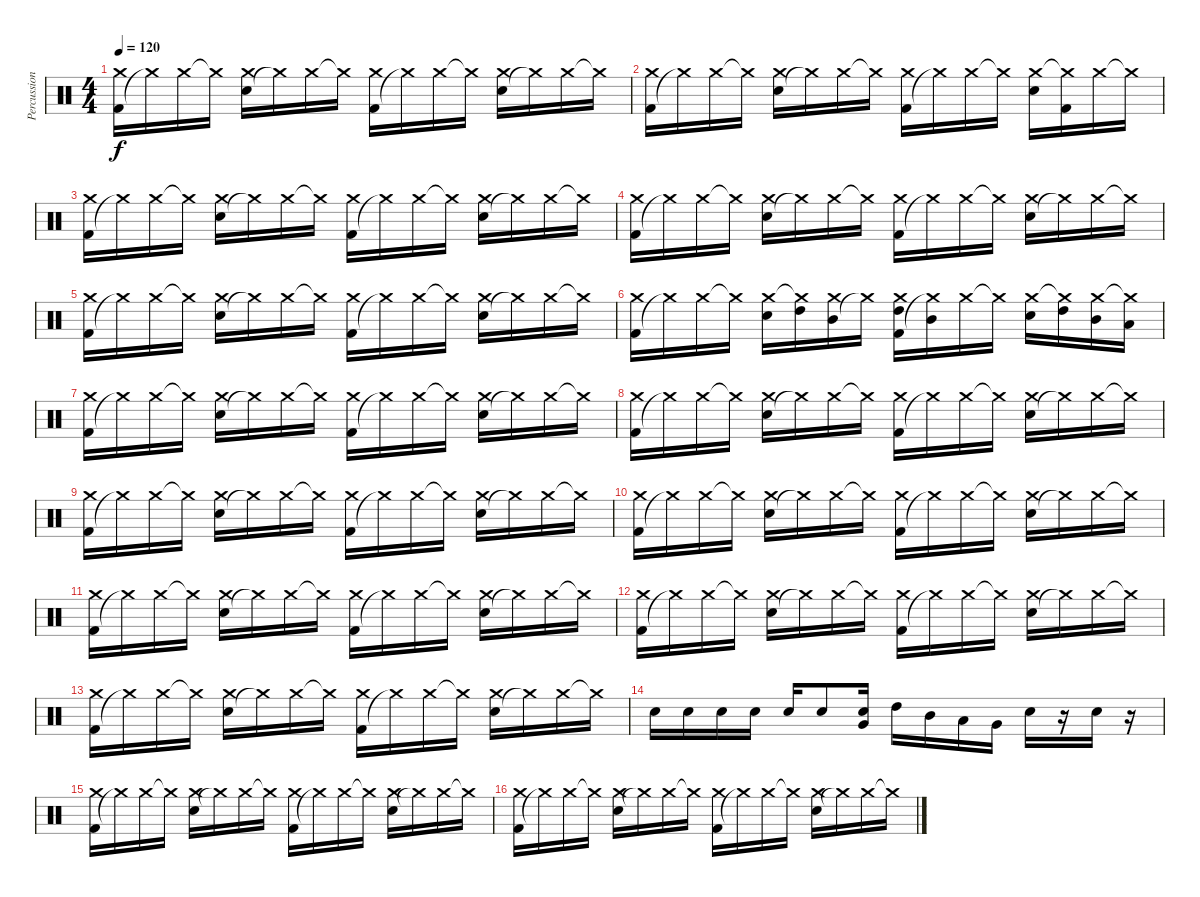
\track ("Percussions" "Percussion") {instrument percussion}
\staff {score}
\articulation defaults
\ts (4 4)
\tempo 120
\clef neutral
\ks c
("Kick (hit) 2" "Crash medium (hit)").16{dy f} "Crash medium (hit)"{t}.16 "Crash medium (hit)".16 "Crash medium (hit)"{t}.16 ("Electric Snare (hit)" "Crash medium (hit)").16 "Crash medium (hit)"{t}.16 "Crash medium (hit)".16 "Crash medium (hit)"{t}.16 ("Kick (hit) 2" "Crash medium (hit)").16 "Crash medium (hit)"{t}.16 "Crash medium (hit)".16 "Crash medium (hit)"{t}.16 ("Electric Snare (hit)" "Crash medium (hit)").16 "Crash medium (hit)"{t}.16 "Crash medium (hit)".16 "Crash medium (hit)"{t}.16 |
("Kick (hit) 2" "Crash medium (hit)").16 "Crash medium (hit)"{t}.16 "Crash medium (hit)".16 "Crash medium (hit)"{t}.16 ("Electric Snare (hit)" "Crash medium (hit)").16 "Crash medium (hit)"{t}.16 "Crash medium (hit)".16 "Crash medium (hit)"{t}.16 ("Kick (hit) 2" "Crash medium (hit)").16 "Crash medium (hit)"{t}.16 "Crash medium (hit)".16 "Crash medium (hit)"{t}.16 ("Electric Snare (hit)" "Crash medium (hit)").16 ("Kick (hit) 2" "Crash medium (hit)"{t}).16 "Crash medium (hit)".16 "Crash medium (hit)"{t}.16 |
("Kick (hit) 2" "Crash medium (hit)").16 "Crash medium (hit)"{t}.16 "Crash medium (hit)".16 "Crash medium (hit)"{t}.16 ("Electric Snare (hit)" "Crash medium (hit)").16 "Crash medium (hit)"{t}.16 "Crash medium (hit)".16 "Crash medium (hit)"{t}.16 ("Kick (hit) 2" "Crash medium (hit)").16 "Crash medium (hit)"{t}.16 "Crash medium (hit)".16 "Crash medium (hit)"{t}.16 ("Electric Snare (hit)" "Crash medium (hit)").16 "Crash medium (hit)"{t}.16 "Crash medium (hit)".16 "Crash medium (hit)"{t}.16 |
("Kick (hit) 2" "Crash medium (hit)").16 "Crash medium (hit)"{t}.16 "Crash medium (hit)".16 "Crash medium (hit)"{t}.16 ("Electric Snare (hit)" "Crash medium (hit)").16 "Crash medium (hit)"{t}.16 "Crash medium (hit)".16 "Crash medium (hit)"{t}.16 ("Kick (hit) 2" "Crash medium (hit)").16 "Crash medium (hit)"{t}.16 "Crash medium (hit)".16 "Crash medium (hit)"{t}.16 ("Electric Snare (hit)" "Crash medium (hit)").16 "Crash medium (hit)"{t}.16 "Crash medium (hit)".16 "Crash medium (hit)"{t}.16 |
("Kick (hit) 2" "Crash medium (hit)").16 "Crash medium (hit)"{t}.16 "Crash medium (hit)".16 "Crash medium (hit)"{t}.16 ("Electric Snare (hit)" "Crash medium (hit)").16 "Crash medium (hit)"{t}.16 "Crash medium (hit)".16 "Crash medium (hit)"{t}.16 ("Kick (hit) 2" "Crash medium (hit)").16 "Crash medium (hit)"{t}.16 "Crash medium (hit)".16 "Crash medium (hit)"{t}.16 ("Electric Snare (hit)" "Crash medium (hit)").16 "Crash medium (hit)"{t}.16 "Crash medium (hit)".16 "Crash medium (hit)"{t}.16 |
("Kick (hit) 2" "Crash medium (hit)").16 "Crash medium (hit)"{t}.16 "Crash medium (hit)".16 "Crash medium (hit)"{t}.16 ("Electric Snare (hit)" "Crash medium (hit)").16 ("High Tom (hit)" "Crash medium (hit)"{t}).16 ("Mid Tom (hit)" "Crash medium (hit)").16 "Crash medium (hit)"{t}.16 ("High Tom (hit)" "Kick (hit) 2" "Crash medium (hit)").16 ("Mid Tom (hit)" "Crash medium (hit)"{t}).16 "Crash medium (hit)".16 "Crash medium (hit)"{t}.16 ("Electric Snare (hit)" "Crash medium (hit)").16 ("High Tom (hit)" "Crash medium (hit)"{t}).16 ("Mid Tom (hit)" "Crash medium (hit)").16 ("Low Tom (hit)" "Crash medium (hit)"{t}).16 |
("Kick (hit) 2" "Crash medium (hit)").16 "Crash medium (hit)"{t}.16 "Crash medium (hit)".16 "Crash medium (hit)"{t}.16 ("Electric Snare (hit)" "Crash medium (hit)").16 "Crash medium (hit)"{t}.16 "Crash medium (hit)".16 "Crash medium (hit)"{t}.16 ("Kick (hit) 2" "Crash medium (hit)").16 "Crash medium (hit)"{t}.16 "Crash medium (hit)".16 "Crash medium (hit)"{t}.16 ("Electric Snare (hit)" "Crash medium (hit)").16 "Crash medium (hit)"{t}.16 "Crash medium (hit)".16 "Crash medium (hit)"{t}.16 |
("Kick (hit) 2" "Crash medium (hit)").16 "Crash medium (hit)"{t}.16 "Crash medium (hit)".16 "Crash medium (hit)"{t}.16 ("Electric Snare (hit)" "Crash medium (hit)").16 "Crash medium (hit)"{t}.16 "Crash medium (hit)".16 "Crash medium (hit)"{t}.16 ("Kick (hit) 2" "Crash medium (hit)").16 "Crash medium (hit)"{t}.16 "Crash medium (hit)".16 "Crash medium (hit)"{t}.16 ("Electric Snare (hit)" "Crash medium (hit)").16 "Crash medium (hit)"{t}.16 "Crash medium (hit)".16 "Crash medium (hit)"{t}.16 |
("Kick (hit) 2" "Crash medium (hit)").16 "Crash medium (hit)"{t}.16 "Crash medium (hit)".16 "Crash medium (hit)"{t}.16 ("Electric Snare (hit)" "Crash medium (hit)").16 "Crash medium (hit)"{t}.16 "Crash medium (hit)".16 "Crash medium (hit)"{t}.16 ("Kick (hit) 2" "Crash medium (hit)").16 "Crash medium (hit)"{t}.16 "Crash medium (hit)".16 "Crash medium (hit)"{t}.16 ("Electric Snare (hit)" "Crash medium (hit)").16 "Crash medium (hit)"{t}.16 "Crash medium (hit)".16 "Crash medium (hit)"{t}.16 |
("Kick (hit) 2" "Crash medium (hit)").16 "Crash medium (hit)"{t}.16 "Crash medium (hit)".16 "Crash medium (hit)"{t}.16 ("Electric Snare (hit)" "Crash medium (hit)").16 "Crash medium (hit)"{t}.16 "Crash medium (hit)".16 "Crash medium (hit)"{t}.16 ("Kick (hit) 2" "Crash medium (hit)").16 "Crash medium (hit)"{t}.16 "Crash medium (hit)".16 "Crash medium (hit)"{t}.16 ("Electric Snare (hit)" "Crash medium (hit)").16 "Crash medium (hit)"{t}.16 "Crash medium (hit)".16 "Crash medium (hit)"{t}.16 |
("Kick (hit) 2" "Crash medium (hit)").16 "Crash medium (hit)"{t}.16 "Crash medium (hit)".16 "Crash medium (hit)"{t}.16 ("Electric Snare (hit)" "Crash medium (hit)").16 "Crash medium (hit)"{t}.16 "Crash medium (hit)".16 "Crash medium (hit)"{t}.16 ("Kick (hit) 2" "Crash medium (hit)").16 "Crash medium (hit)"{t}.16 "Crash medium (hit)".16 "Crash medium (hit)"{t}.16 ("Electric Snare (hit)" "Crash medium (hit)").16 "Crash medium (hit)"{t}.16 "Crash medium (hit)".16 "Crash medium (hit)"{t}.16 |
("Kick (hit) 2" "Crash medium (hit)").16 "Crash medium (hit)"{t}.16 "Crash medium (hit)".16 "Crash medium (hit)"{t}.16 ("Electric Snare (hit)" "Crash medium (hit)").16 "Crash medium (hit)"{t}.16 "Crash medium (hit)".16 "Crash medium (hit)"{t}.16 ("Kick (hit) 2" "Crash medium (hit)").16 "Crash medium (hit)"{t}.16 "Crash medium (hit)".16 "Crash medium (hit)"{t}.16 ("Electric Snare (hit)" "Crash medium (hit)").16 "Crash medium (hit)"{t}.16 "Crash medium (hit)".16 "Crash medium (hit)"{t}.16 |
("Kick (hit) 2" "Crash medium (hit)").16 "Crash medium (hit)"{t}.16 "Crash medium (hit)".16 "Crash medium (hit)"{t}.16 ("Electric Snare (hit)" "Crash medium (hit)").16 "Crash medium (hit)"{t}.16 "Crash medium (hit)".16 "Crash medium (hit)"{t}.16 ("Kick (hit) 2" "Crash medium (hit)").16 "Crash medium (hit)"{t}.16 "Crash medium (hit)".16 "Crash medium (hit)"{t}.16 ("Electric Snare (hit)" "Crash medium (hit)").16 "Crash medium (hit)"{t}.16 "Crash medium (hit)".16 "Crash medium (hit)"{t}.16 |
"Electric Snare (hit)".16 "Electric Snare (hit)".16 "Electric Snare (hit)".16 "Electric Snare (hit)".16 "Electric Snare (hit)".16 "Electric Snare (hit)".8 ("Very Low Tom (hit)" "Electric Snare (hit)").16 "High Tom (hit)".16 "Mid Tom (hit)".16 "Low Tom (hit)".16 "Very Low Tom (hit)".16 "Electric Snare (hit)".16 r.16 "Electric Snare (hit)".16 r.16 |
("Kick (hit) 2" "Crash medium (hit)").16 "Crash medium (hit)"{t}.16 "Crash medium (hit)".16 "Crash medium (hit)"{t}.16 ("Electric Snare (hit)" "Crash medium (hit)").16 "Crash medium (hit)"{t}.16 "Crash medium (hit)".16 "Crash medium (hit)"{t}.16 ("Kick (hit) 2" "Crash medium (hit)").16 "Crash medium (hit)"{t}.16 "Crash medium (hit)".16 "Crash medium (hit)"{t}.16 ("Electric Snare (hit)" "Crash medium (hit)").16 "Crash medium (hit)"{t}.16 "Crash medium (hit)".16 "Crash medium (hit)"{t}.16 |
("Kick (hit) 2" "Crash medium (hit)").16 "Crash medium (hit)"{t}.16 "Crash medium (hit)".16 "Crash medium (hit)"{t}.16 ("Electric Snare (hit)" "Crash medium (hit)").16 "Crash medium (hit)"{t}.16 "Crash medium (hit)".16 "Crash medium (hit)"{t}.16 ("Kick (hit) 2" "Crash medium (hit)").16 "Crash medium (hit)"{t}.16 "Crash medium (hit)".16 "Crash medium (hit)"{t}.16 ("Electric Snare (hit)" "Crash medium (hit)").16 "Crash medium (hit)"{t}.16 "Crash medium (hit)".16 "Crash medium (hit)"{t}.16
